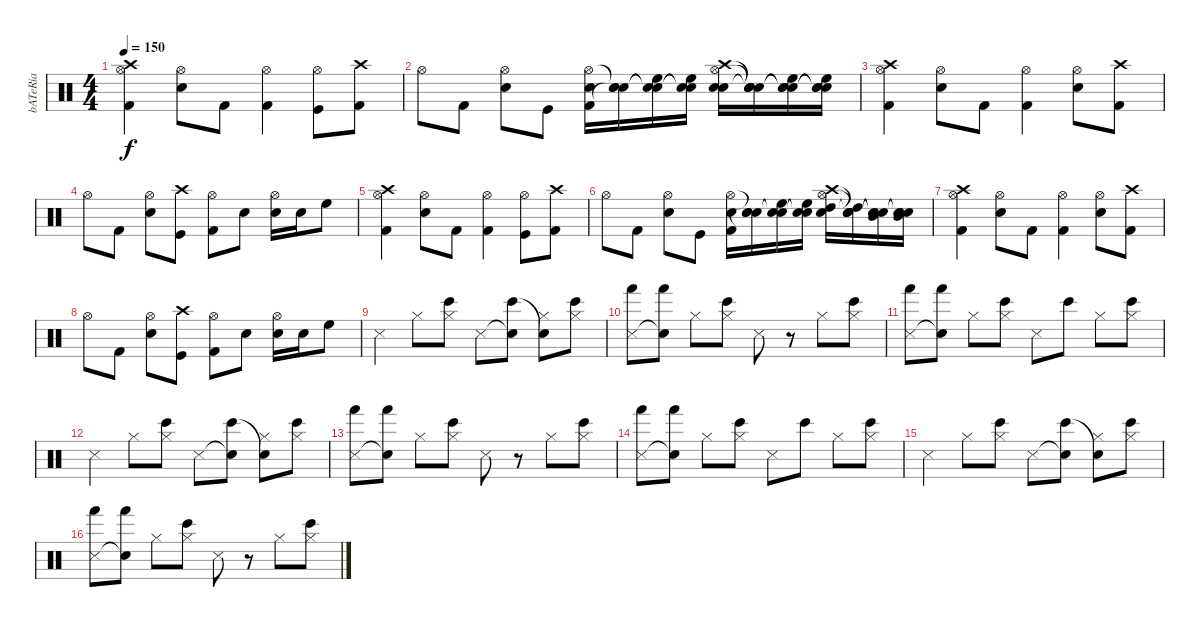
\track ("bATeRia" "bATeRia") {instrument percussion}
\staff {score}
\articulation defaults
\ts (4 4)
\tempo 150
\clef neutral
\ks c
("Hi-Hat (open)" "Kick (hit) 2" "Crash high (hit)").4{dy f} ("Hi-Hat (open)" "Snare (hit) 2").8 "Kick (hit) 2".8 ("Hi-Hat (open)" "Kick (hit) 2").4 ("Hi-Hat (open)" "Kick (hit)").8 ("Kick (hit) 2" "Crash high (hit)").8 |
"Hi-Hat (open)".8 "Kick (hit) 2".8 ("Hi-Hat (open)" "Snare (hit) 2").8 "Kick (hit)".8 ("Hi-Hat (open)" "Kick (hit) 2" "Snare (hit) 2").16 ("Snare (hit)"{t} "Snare (hit)"{t} "Snare (hit) 2").16 ("Snare (hit)"{t} "Snare (hit)"{t} "High Floor Tom (hit)").16 ("Snare (hit)"{t} "Snare (hit)"{t} "High Floor Tom (hit)").16 ("Hi-Hat (open)" "Snare (hit) 2" "Crash high (hit)" "Snare (hit) 2").16 ("Snare (hit)"{t} "Snare (hit)"{t} "Snare (hit)"{t} "Snare (hit) 2").16 ("Snare (hit)"{t} "Snare (hit)"{t} "Snare (hit)"{t} "High Floor Tom (hit)").16 ("Snare (hit)"{t} "Snare (hit)"{t} "Snare (hit)"{t} "High Floor Tom (hit)").16 |
("Hi-Hat (open)" "Kick (hit) 2" "Crash high (hit)").4 ("Hi-Hat (open)" "Snare (hit) 2").8 "Kick (hit) 2".8 ("Hi-Hat (open)" "Kick (hit) 2").4 ("Hi-Hat (open)" "Snare (hit) 2").8 ("Kick (hit) 2" "Crash high (hit)").8 |
"Hi-Hat (open)".8 "Kick (hit) 2".8 ("Hi-Hat (open)" "Snare (hit) 2").8 ("Kick (hit)" "Crash high (hit)").8 ("Hi-Hat (open)" "Kick (hit) 2").8 "Snare (hit) 2".8 ("Hi-Hat (open)" "Snare (hit) 2").16 "Snare (hit) 2".16 "High Floor Tom (hit)".8 |
("Hi-Hat (open)" "Kick (hit) 2" "Crash high (hit)").4 ("Hi-Hat (open)" "Snare (hit) 2").8 "Kick (hit) 2".8 ("Hi-Hat (open)" "Kick (hit) 2").4 ("Hi-Hat (open)" "Kick (hit)").8 ("Kick (hit) 2" "Crash high (hit)").8 |
"Hi-Hat (open)".8 "Kick (hit) 2".8 ("Hi-Hat (open)" "Snare (hit) 2").8 "Kick (hit)".8 ("Hi-Hat (open)" "Kick (hit) 2" "Snare (hit) 2").16 ("Snare (hit)"{t} "Snare (hit)"{t} "Snare (hit) 2").16 ("Snare (hit)"{t} "Snare (hit)"{t} "High Floor Tom (hit)").16 ("Snare (hit)"{t} "Snare (hit)"{t} "High Floor Tom (hit)").16 ("Hi-Hat (open)" "Snare (hit) 2" "Crash high (hit)" "High Tom (hit)").16 ("Snare (hit)"{t} "Snare (hit)"{t} "Snare (hit)"{t} "High Tom (hit)").16 ("Snare (hit)"{t} "Snare (hit)"{t} "Snare (hit)"{t} "Mid Tom (hit)").16 ("Snare (hit)"{t} "Snare (hit)"{t} "Snare (hit)"{t} "Mid Tom (hit)").16 |
("Hi-Hat (open)" "Kick (hit) 2" "Crash high (hit)").4 ("Hi-Hat (open)" "Snare (hit) 2").8 "Kick (hit) 2".8 ("Hi-Hat (open)" "Kick (hit) 2").4 ("Hi-Hat (open)" "Snare (hit) 2").8 ("Kick (hit) 2" "Crash high (hit)").8 |
"Hi-Hat (open)".8 "Kick (hit) 2".8 ("Hi-Hat (open)" "Snare (hit) 2").8 ("Kick (hit)" "Crash high (hit)").8 ("Hi-Hat (open)" "Kick (hit) 2").8 "Snare (hit) 2".8 ("Hi-Hat (open)" "Snare (hit) 2").16 "Snare (hit) 2".16 "High Floor Tom (hit)".8 |
"Snare (side stick) 3".4 "Hi-Hat (closed)".8 ("Hi-Hat (closed)" "Bongo High (hit)").8 "Snare (side stick) 3".8 ("Snare (hit)"{t} "Bongo High (hit)").8 ("Hi-Hat (closed)" "Snare (hit)"{t}).8 ("Hi-Hat (closed)" "Bongo High (hit)").8 |
("Snare (side stick) 3" "Hand (hit)").8 ("Snare (hit)"{t} "Hand (hit)").8 "Hi-Hat (closed)".8 ("Hi-Hat (closed)" "Bongo High (hit)").8 "Snare (side stick) 3".8 r.8 "Hi-Hat (closed)".8 ("Hi-Hat (closed)" "Bongo High (hit)").8 |
("Snare (side stick) 3" "Hand (hit)").8 ("Snare (hit)"{t} "Hand (hit)").8 "Hi-Hat (closed)".8 ("Hi-Hat (closed)" "Bongo High (hit)").8 "Snare (side stick) 3".8 "Bongo High (hit)".8 "Hi-Hat (closed)".8 ("Hi-Hat (closed)" "Bongo High (hit)").8 |
"Snare (side stick) 3".4 "Hi-Hat (closed)".8 ("Hi-Hat (closed)" "Bongo High (hit)").8 "Snare (side stick) 3".8 ("Snare (hit)"{t} "Bongo High (hit)").8 ("Hi-Hat (closed)" "Snare (hit)"{t}).8 ("Hi-Hat (closed)" "Bongo High (hit)").8 |
("Snare (side stick) 3" "Hand (hit)").8 ("Snare (hit)"{t} "Hand (hit)").8 "Hi-Hat (closed)".8 ("Hi-Hat (closed)" "Bongo High (hit)").8 "Snare (side stick) 3".8 r.8 "Hi-Hat (closed)".8 ("Hi-Hat (closed)" "Bongo High (hit)").8 |
("Snare (side stick) 3" "Hand (hit)").8 ("Snare (hit)"{t} "Hand (hit)").8 "Hi-Hat (closed)".8 ("Hi-Hat (closed)" "Bongo High (hit)").8 "Snare (side stick) 3".8 "Bongo High (hit)".8 "Hi-Hat (closed)".8 ("Hi-Hat (closed)" "Bongo High (hit)").8 |
"Snare (side stick) 3".4 "Hi-Hat (closed)".8 ("Hi-Hat (closed)" "Bongo High (hit)").8 "Snare (side stick) 3".8 ("Snare (hit)"{t} "Bongo High (hit)").8 ("Hi-Hat (closed)" "Snare (hit)"{t}).8 ("Hi-Hat (closed)" "Bongo High (hit)").8 |
("Snare (side stick) 3" "Hand (hit)").8 ("Snare (hit)"{t} "Hand (hit)").8 "Hi-Hat (closed)".8 ("Hi-Hat (closed)" "Bongo High (hit)").8 "Snare (side stick) 3".8 r.8 "Hi-Hat (closed)".8 ("Hi-Hat (closed)" "Bongo High (hit)").8
